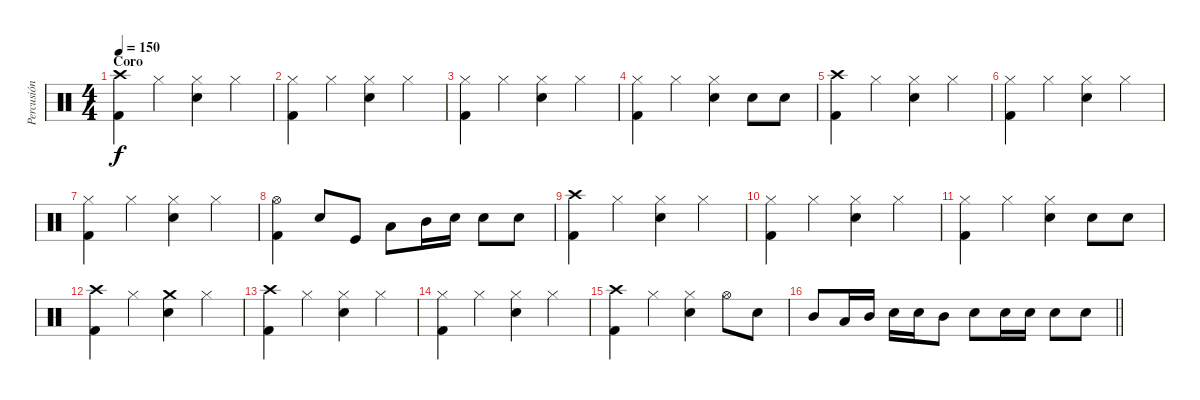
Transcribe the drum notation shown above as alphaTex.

\track ("Percusión" "Percusión") {instrument percussion}
\staff {score}
\articulation defaults
\ts (4 4)
\section ("" "Coro")
\tempo 150
\clef neutral
\ks c
("Crash high (hit)" "Kick (hit) 2").4{dy f} "Hi-Hat (closed)".4 ("Hi-Hat (closed)" "Electric Snare (hit)").4 "Hi-Hat (closed)".4 |
("Hi-Hat (closed)" "Kick (hit) 2").4 "Hi-Hat (closed)".4 ("Hi-Hat (closed)" "Electric Snare (hit)").4 "Hi-Hat (closed)".4 |
("Hi-Hat (closed)" "Kick (hit) 2").4 "Hi-Hat (closed)".4 ("Hi-Hat (closed)" "Electric Snare (hit)").4 "Hi-Hat (closed)".4 |
("Hi-Hat (closed)" "Kick (hit) 2").4 "Hi-Hat (closed)".4 ("Hi-Hat (closed)" "Electric Snare (hit)").4 "Electric Snare (hit)".8 "Electric Snare (hit)".8 |
("Crash high (hit)" "Kick (hit) 2").4 "Hi-Hat (closed)".4 ("Hi-Hat (closed)" "Electric Snare (hit)").4 "Hi-Hat (closed)".4 |
("Hi-Hat (closed)" "Kick (hit) 2").4 "Hi-Hat (closed)".4 ("Hi-Hat (closed)" "Electric Snare (hit)").4 "Hi-Hat (closed)".4 |
("Hi-Hat (closed)" "Kick (hit) 2").4 "Hi-Hat (closed)".4 ("Hi-Hat (closed)" "Electric Snare (hit)").4 "Hi-Hat (closed)".4 |
("Hi-Hat (open)" "Kick (hit) 2").4 "Electric Snare (hit)".8 "Kick (hit)".8 "Low Tom (hit)".8 "Mid Tom (hit)".16 "Electric Snare (hit)".16 "Electric Snare (hit)".8 "Electric Snare (hit)".8 |
("Crash high (hit)" "Kick (hit) 2").4 "Hi-Hat (closed)".4 ("Hi-Hat (closed)" "Electric Snare (hit)").4 "Hi-Hat (closed)".4 |
("Hi-Hat (closed)" "Kick (hit) 2").4 "Hi-Hat (closed)".4 ("Hi-Hat (closed)" "Electric Snare (hit)").4 "Hi-Hat (closed)".4 |
("Hi-Hat (closed)" "Kick (hit) 2").4 "Hi-Hat (closed)".4 ("Hi-Hat (closed)" "Electric Snare (hit)").4 "Electric Snare (hit)".8 "Electric Snare (hit)".8 |
("Crash high (hit)" "Kick (hit) 2").4 "Hi-Hat (closed)".4 ("Crash medium (hit)" "Electric Snare (hit)").4 "Hi-Hat (closed)".4 |
("Crash high (hit)" "Kick (hit) 2").4 "Hi-Hat (closed)".4 ("Hi-Hat (closed)" "Electric Snare (hit)").4 "Hi-Hat (closed)".4 |
("Hi-Hat (closed)" "Kick (hit) 2").4 "Hi-Hat (closed)".4 ("Hi-Hat (closed)" "Electric Snare (hit)").4 "Hi-Hat (closed)".4 |
("Crash high (hit)" "Kick (hit) 2").4 "Hi-Hat (closed)".4 ("Hi-Hat (closed)" "Electric Snare (hit)").4 "Hi-Hat (open)".8 "Electric Snare (hit)".8 |
\barLineRight lightlight "Mid Tom (hit)".8 "Low Tom (hit)".16 "Mid Tom (hit)".16 "Electric Snare (hit)".16 "Electric Snare (hit)".16 "Mid Tom (hit)".8 "Electric Snare (hit)".8 "Electric Snare (hit)".16 "Electric Snare (hit)".16 "Electric Snare (hit)".8 "Electric Snare (hit)".8
